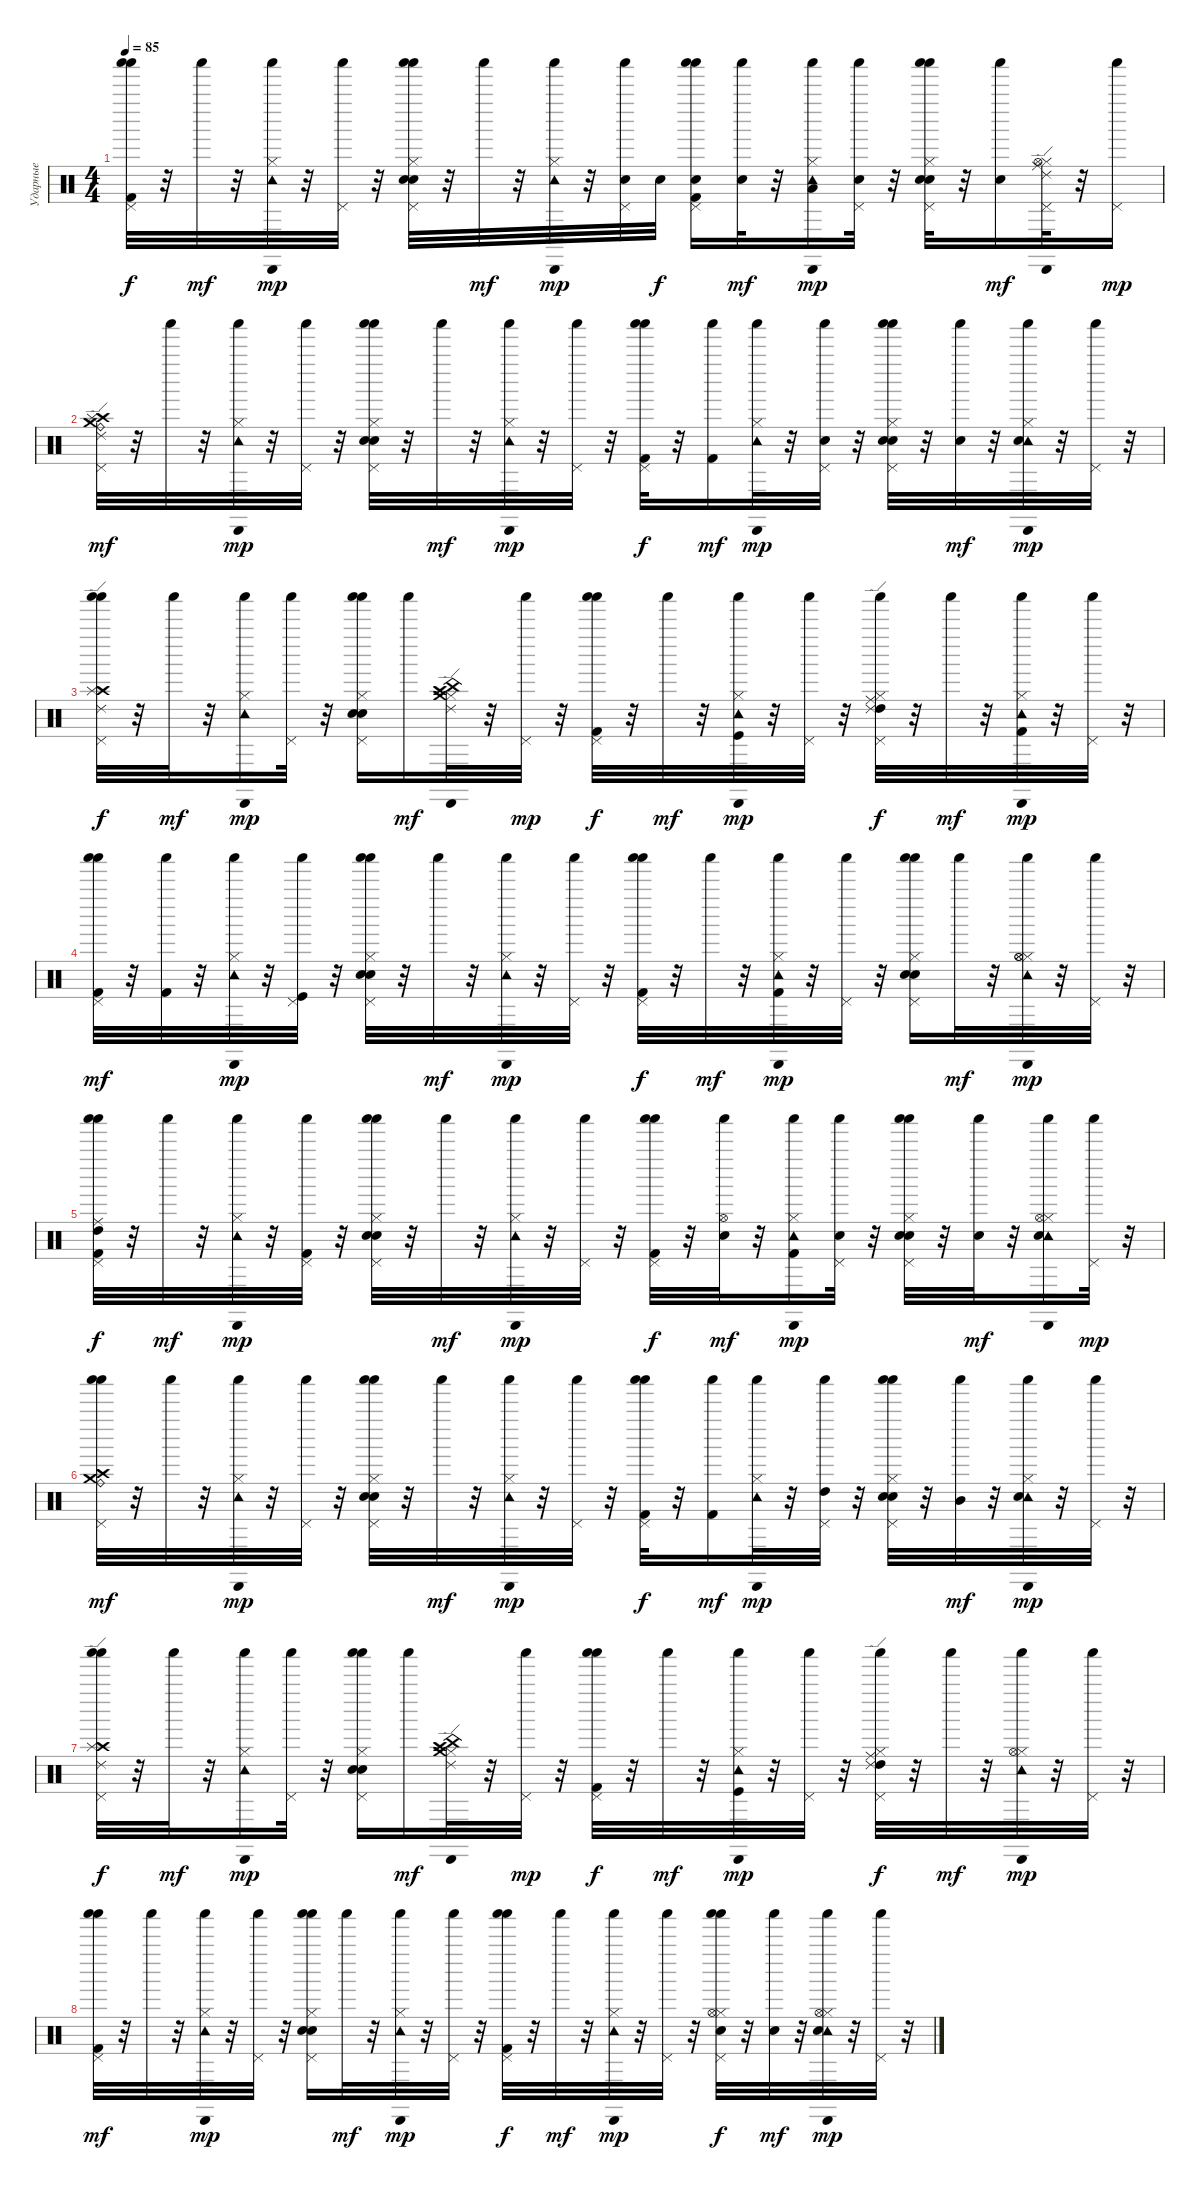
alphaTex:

\track ("Ударные" "Ударные") {instrument percussion}
\staff {score}
\articulation defaults
\ts (4 4)
\tempo 85
\clef neutral
\ks c
("Pedal Hi-Hat (hit)" "Shaker (hit)" "Shaker (hit)" "Kick (hit) 2").32{dy f} r.32 "Shaker (hit)".32{dy mf} r.32 ("Hi-Hat (closed)" "Cabasa (hit)" "Shaker (hit)" "Tambourine (hit)").32{dy mp} r.32 ("Pedal Hi-Hat (hit)" "Shaker (hit)").32 r.32 ("Hi-Hat (closed)" "Pedal Hi-Hat (hit)" "Shaker (hit)" "Shaker (hit)" "Snare (hit) 2" "Electric Snare (hit)").32 r.32 "Shaker (hit)".32{dy mf} r.32 ("Hi-Hat (closed)" "Cabasa (hit)" "Shaker (hit)" "Tambourine (hit)").32{dy mp} r.32 ("Pedal Hi-Hat (hit)" "Shaker (hit)" "Snare (hit) 2").32 "Snare (hit) 2".32{dy f} ("Pedal Hi-Hat (hit)" "Shaker (hit)" "Shaker (hit)" "Kick (hit) 2" "Snare (hit) 2").16 ("Shaker (hit)" "Snare (hit) 2").32{dy mf} r.32 ("Hi-Hat (closed)" "Cabasa (hit)" "Shaker (hit)" "Low Tom (hit)" "Tambourine (hit)").16{dy mp} ("Pedal Hi-Hat (hit)" "Shaker (hit)" "Snare (hit) 2").32 r.32 ("Hi-Hat (closed)" "Pedal Hi-Hat (hit)" "Shaker (hit)" "Shaker (hit)" "Snare (hit) 2" "Electric Snare (hit)").32 r.32 ("Shaker (hit)" "Snare (hit) 2").16{dy mf} ("Ride (middle)" "Hi-Hat (closed)" "Hi-Hat (open)" "Ride (edge) 2" "Cabasa (hit)" "Pedal Hi-Hat (hit)").32 r.32 ("Pedal Hi-Hat (hit)" "Shaker (hit)").16{dy mp} |
("Ride (bell)" "Crash high (hit)" "Splash (hit)" "Ride (edge) 2" "Crash medium (hit)" "Pedal Hi-Hat (hit)").32{dy mf} r.32 "Shaker (hit)".32 r.32 ("Hi-Hat (closed)" "Cabasa (hit)" "Shaker (hit)" "Tambourine (hit)").32{dy mp} r.32 ("Pedal Hi-Hat (hit)" "Shaker (hit)").32 r.32 ("Hi-Hat (closed)" "Pedal Hi-Hat (hit)" "Shaker (hit)" "Shaker (hit)" "Snare (hit) 2" "Electric Snare (hit)").32 r.32 "Shaker (hit)".32{dy mf} r.32 ("Hi-Hat (closed)" "Cabasa (hit)" "Shaker (hit)" "Tambourine (hit)").32{dy mp} r.32 ("Pedal Hi-Hat (hit)" "Shaker (hit)").32 r.32 ("Pedal Hi-Hat (hit)" "Shaker (hit)" "Shaker (hit)" "Kick (hit) 2").32{dy f} r.32 ("Shaker (hit)" "Kick (hit) 2").16{dy mf} ("Hi-Hat (closed)" "Cabasa (hit)" "Shaker (hit)" "Tambourine (hit)").32{dy mp} r.32 ("Pedal Hi-Hat (hit)" "Shaker (hit)" "Snare (hit) 2").32 r.32 ("Hi-Hat (closed)" "Pedal Hi-Hat (hit)" "Shaker (hit)" "Shaker (hit)" "Snare (hit) 2" "Electric Snare (hit)").32 r.32 ("Shaker (hit)" "Snare (hit) 2").32{dy mf} r.32 ("Hi-Hat (closed)" "Cabasa (hit)" "Shaker (hit)" "Tambourine (hit)" "Snare (hit) 2").32{dy mp} r.32 ("Pedal Hi-Hat (hit)" "Shaker (hit)").32 r.32 |
("Crash high (hit)" "Splash (hit)" "Ride (edge) 2" "Pedal Hi-Hat (hit)" "Shaker (hit)" "Shaker (hit)").32{dy f} r.32 "Shaker (hit)".32{dy mf} r.32 ("Hi-Hat (closed)" "Cabasa (hit)" "Shaker (hit)" "Tambourine (hit)").16{dy mp} ("Pedal Hi-Hat (hit)" "Shaker (hit)").32 r.32 ("Hi-Hat (closed)" "Pedal Hi-Hat (hit)" "Shaker (hit)" "Shaker (hit)" "Snare (hit) 2" "Electric Snare (hit)").16 "Shaker (hit)".16{dy mf} ("Hi-Hat (closed)" "Crash high (hit)" "China (hit)" "Ride (edge) 2" "Crash medium (hit)" "Cabasa (hit)").32 r.32 ("Pedal Hi-Hat (hit)" "Shaker (hit)").32{dy mp} r.32 ("Pedal Hi-Hat (hit)" "Shaker (hit)" "Shaker (hit)" "Kick (hit) 2").32{dy f} r.32 "Shaker (hit)".32{dy mf} r.32 ("Hi-Hat (closed)" "Cabasa (hit)" "Shaker (hit)" "Kick (hit)" "Tambourine (hit)").32{dy mp} r.32 ("Pedal Hi-Hat (hit)" "Shaker (hit)").32 r.32 ("High Tom (hit)" "Ride (middle)" "Hi-Hat (closed)" "Ride (edge) 2" "Pedal Hi-Hat (hit)" "Shaker (hit)").32{dy f} r.32 "Shaker (hit)".32{dy mf} r.32 ("Hi-Hat (closed)" "Cabasa (hit)" "Shaker (hit)" "Kick (hit) 2" "Tambourine (hit)").32{dy mp} r.32 ("Pedal Hi-Hat (hit)" "Shaker (hit)").32 r.32 |
("Pedal Hi-Hat (hit)" "Shaker (hit)" "Shaker (hit)" "Kick (hit) 2").32{dy mf} r.32 ("Shaker (hit)" "Kick (hit) 2").32 r.32 ("Hi-Hat (closed)" "Cabasa (hit)" "Shaker (hit)" "Tambourine (hit)").32{dy mp} r.32 ("Pedal Hi-Hat (hit)" "Shaker (hit)" "Kick (hit)").32 r.32 ("Hi-Hat (closed)" "Pedal Hi-Hat (hit)" "Shaker (hit)" "Shaker (hit)" "Snare (hit) 2" "Electric Snare (hit)").32 r.32 "Shaker (hit)".32{dy mf} r.32 ("Hi-Hat (closed)" "Cabasa (hit)" "Shaker (hit)" "Tambourine (hit)").32{dy mp} r.32 ("Pedal Hi-Hat (hit)" "Shaker (hit)").32 r.32 ("Pedal Hi-Hat (hit)" "Shaker (hit)" "Shaker (hit)" "Kick (hit) 2").32{dy f} r.32 "Shaker (hit)".32{dy mf} r.32 ("Hi-Hat (closed)" "Cabasa (hit)" "Shaker (hit)" "Kick (hit) 2" "Tambourine (hit)").32{dy mp} r.32 ("Pedal Hi-Hat (hit)" "Shaker (hit)").32 r.32 ("Hi-Hat (closed)" "Pedal Hi-Hat (hit)" "Shaker (hit)" "Shaker (hit)" "Snare (hit) 2" "Electric Snare (hit)").16 "Shaker (hit)".32{dy mf} r.32 ("Hi-Hat (closed)" "Hi-Hat (open)" "Hi-Hat (open)" "Cabasa (hit)" "Shaker (hit)" "Tambourine (hit)").32{dy mp} r.32 ("Pedal Hi-Hat (hit)" "Shaker (hit)").32 r.32 |
("High Tom (hit)" "Ride (middle)" "Pedal Hi-Hat (hit)" "Shaker (hit)" "Shaker (hit)" "Kick (hit) 2").32{dy f} r.32 "Shaker (hit)".32{dy mf} r.32 ("Hi-Hat (closed)" "Cabasa (hit)" "Shaker (hit)" "Tambourine (hit)").32{dy mp} r.32 ("Pedal Hi-Hat (hit)" "Shaker (hit)" "Kick (hit) 2").32 r.32 ("Hi-Hat (closed)" "Pedal Hi-Hat (hit)" "Shaker (hit)" "Shaker (hit)" "Snare (hit) 2" "Electric Snare (hit)").32 r.32 "Shaker (hit)".32{dy mf} r.32 ("Hi-Hat (closed)" "Cabasa (hit)" "Shaker (hit)" "Tambourine (hit)").32{dy mp} r.32 ("Pedal Hi-Hat (hit)" "Shaker (hit)").32 r.32 ("Pedal Hi-Hat (hit)" "Shaker (hit)" "Shaker (hit)" "Kick (hit) 2").32{dy f} r.32 ("Hi-Hat (open)" "Shaker (hit)" "Snare (hit) 2").32{dy mf} r.32 ("Hi-Hat (closed)" "Cabasa (hit)" "Shaker (hit)" "Kick (hit) 2" "Tambourine (hit)").16{dy mp} ("Pedal Hi-Hat (hit)" "Shaker (hit)" "Electric Snare (hit)").32 r.32 ("Hi-Hat (closed)" "Pedal Hi-Hat (hit)" "Shaker (hit)" "Shaker (hit)" "Snare (hit) 2" "Electric Snare (hit)").32 r.32 ("Shaker (hit)" "Snare (hit) 2").32{dy mf} r.32 ("Hi-Hat (closed)" "Hi-Hat (open)" "Cabasa (hit)" "Shaker (hit)" "Tambourine (hit)" "Snare (hit) 2").16 ("Pedal Hi-Hat (hit)" "Shaker (hit)").32{dy mp} r.32 |
("Ride (bell)" "Crash high (hit)" "Crash medium (hit)" "Pedal Hi-Hat (hit)" "Shaker (hit)" "Shaker (hit)").32{dy mf} r.32 "Shaker (hit)".32 r.32 ("Hi-Hat (closed)" "Cabasa (hit)" "Shaker (hit)" "Tambourine (hit)").32{dy mp} r.32 ("Pedal Hi-Hat (hit)" "Shaker (hit)").32 r.32 ("Hi-Hat (closed)" "Pedal Hi-Hat (hit)" "Shaker (hit)" "Shaker (hit)" "Snare (hit) 2" "Electric Snare (hit)").32 r.32 "Shaker (hit)".32{dy mf} r.32 ("Hi-Hat (closed)" "Cabasa (hit)" "Shaker (hit)" "Tambourine (hit)").32{dy mp} r.32 ("Pedal Hi-Hat (hit)" "Shaker (hit)").32 r.32 ("Pedal Hi-Hat (hit)" "Shaker (hit)" "Shaker (hit)" "Kick (hit) 2").32{dy f} r.32 ("Shaker (hit)" "Kick (hit) 2").16{dy mf} ("Hi-Hat (closed)" "Cabasa (hit)" "Shaker (hit)" "Tambourine (hit)").32{dy mp} r.32 ("High Tom (hit)" "Pedal Hi-Hat (hit)" "Shaker (hit)").32 r.32 ("Hi-Hat (closed)" "Pedal Hi-Hat (hit)" "Shaker (hit)" "Shaker (hit)" "Snare (hit) 2" "Electric Snare (hit)").32 r.32 ("Mid Tom (hit)" "Shaker (hit)").32{dy mf} r.32 ("Hi-Hat (closed)" "Cabasa (hit)" "Shaker (hit)" "Tambourine (hit)" "Snare (hit) 2").32{dy mp} r.32 ("Pedal Hi-Hat (hit)" "Shaker (hit)").32 r.32 |
("Crash high (hit)" "Splash (hit)" "Ride (edge) 2" "Pedal Hi-Hat (hit)" "Shaker (hit)" "Shaker (hit)").32{dy f} r.32 "Shaker (hit)".32{dy mf} r.32 ("Hi-Hat (closed)" "Cabasa (hit)" "Shaker (hit)" "Tambourine (hit)").16{dy mp} ("Pedal Hi-Hat (hit)" "Shaker (hit)").32 r.32 ("Hi-Hat (closed)" "Pedal Hi-Hat (hit)" "Shaker (hit)" "Shaker (hit)" "Snare (hit) 2" "Electric Snare (hit)").16 "Shaker (hit)".16{dy mf} ("Hi-Hat (closed)" "Crash high (hit)" "China (hit)" "Ride (edge) 2" "Crash medium (hit)" "Cabasa (hit)").32 r.32 ("Pedal Hi-Hat (hit)" "Shaker (hit)").32{dy mp} r.32 ("Pedal Hi-Hat (hit)" "Shaker (hit)" "Shaker (hit)" "Kick (hit) 2").32{dy f} r.32 "Shaker (hit)".32{dy mf} r.32 ("Hi-Hat (closed)" "Cabasa (hit)" "Shaker (hit)" "Kick (hit)" "Tambourine (hit)").32{dy mp} r.32 ("Pedal Hi-Hat (hit)" "Shaker (hit)").32 r.32 ("High Tom (hit)" "Ride (middle)" "Hi-Hat (closed)" "Ride (edge) 2" "Pedal Hi-Hat (hit)" "Shaker (hit)").32{dy f} r.32 "Shaker (hit)".32{dy mf} r.32 ("Hi-Hat (closed)" "Hi-Hat (open)" "Cabasa (hit)" "Shaker (hit)" "Tambourine (hit)").32{dy mp} r.32 ("Pedal Hi-Hat (hit)" "Shaker (hit)").32 r.32 |
("Pedal Hi-Hat (hit)" "Shaker (hit)" "Shaker (hit)" "Kick (hit) 2").32{dy mf} r.32 "Shaker (hit)".32 r.32 ("Hi-Hat (closed)" "Cabasa (hit)" "Shaker (hit)" "Tambourine (hit)").32{dy mp} r.32 ("Pedal Hi-Hat (hit)" "Shaker (hit)").32 r.32 ("Hi-Hat (closed)" "Pedal Hi-Hat (hit)" "Shaker (hit)" "Shaker (hit)" "Snare (hit) 2" "Electric Snare (hit)").16 "Shaker (hit)".32{dy mf} r.32 ("Hi-Hat (closed)" "Cabasa (hit)" "Shaker (hit)" "Tambourine (hit)").32{dy mp} r.32 ("Pedal Hi-Hat (hit)" "Shaker (hit)").32 r.32 ("Pedal Hi-Hat (hit)" "Shaker (hit)" "Shaker (hit)" "Kick (hit) 2").32{dy f} r.32 "Shaker (hit)".32{dy mf} r.32 ("Hi-Hat (closed)" "Cabasa (hit)" "Shaker (hit)" "Tambourine (hit)").32{dy mp} r.32 ("Pedal Hi-Hat (hit)" "Shaker (hit)").32 r.32 ("Hi-Hat (closed)" "Hi-Hat (open)" "Pedal Hi-Hat (hit)" "Shaker (hit)" "Shaker (hit)" "Snare (hit) 2").32{dy f} r.32 ("Shaker (hit)" "Snare (hit) 2").32{dy mf} r.32 ("Hi-Hat (closed)" "Hi-Hat (open)" "Cabasa (hit)" "Shaker (hit)" "Tambourine (hit)" "Snare (hit) 2").32{dy mp} r.32 ("Pedal Hi-Hat (hit)" "Shaker (hit)").32 r.32
